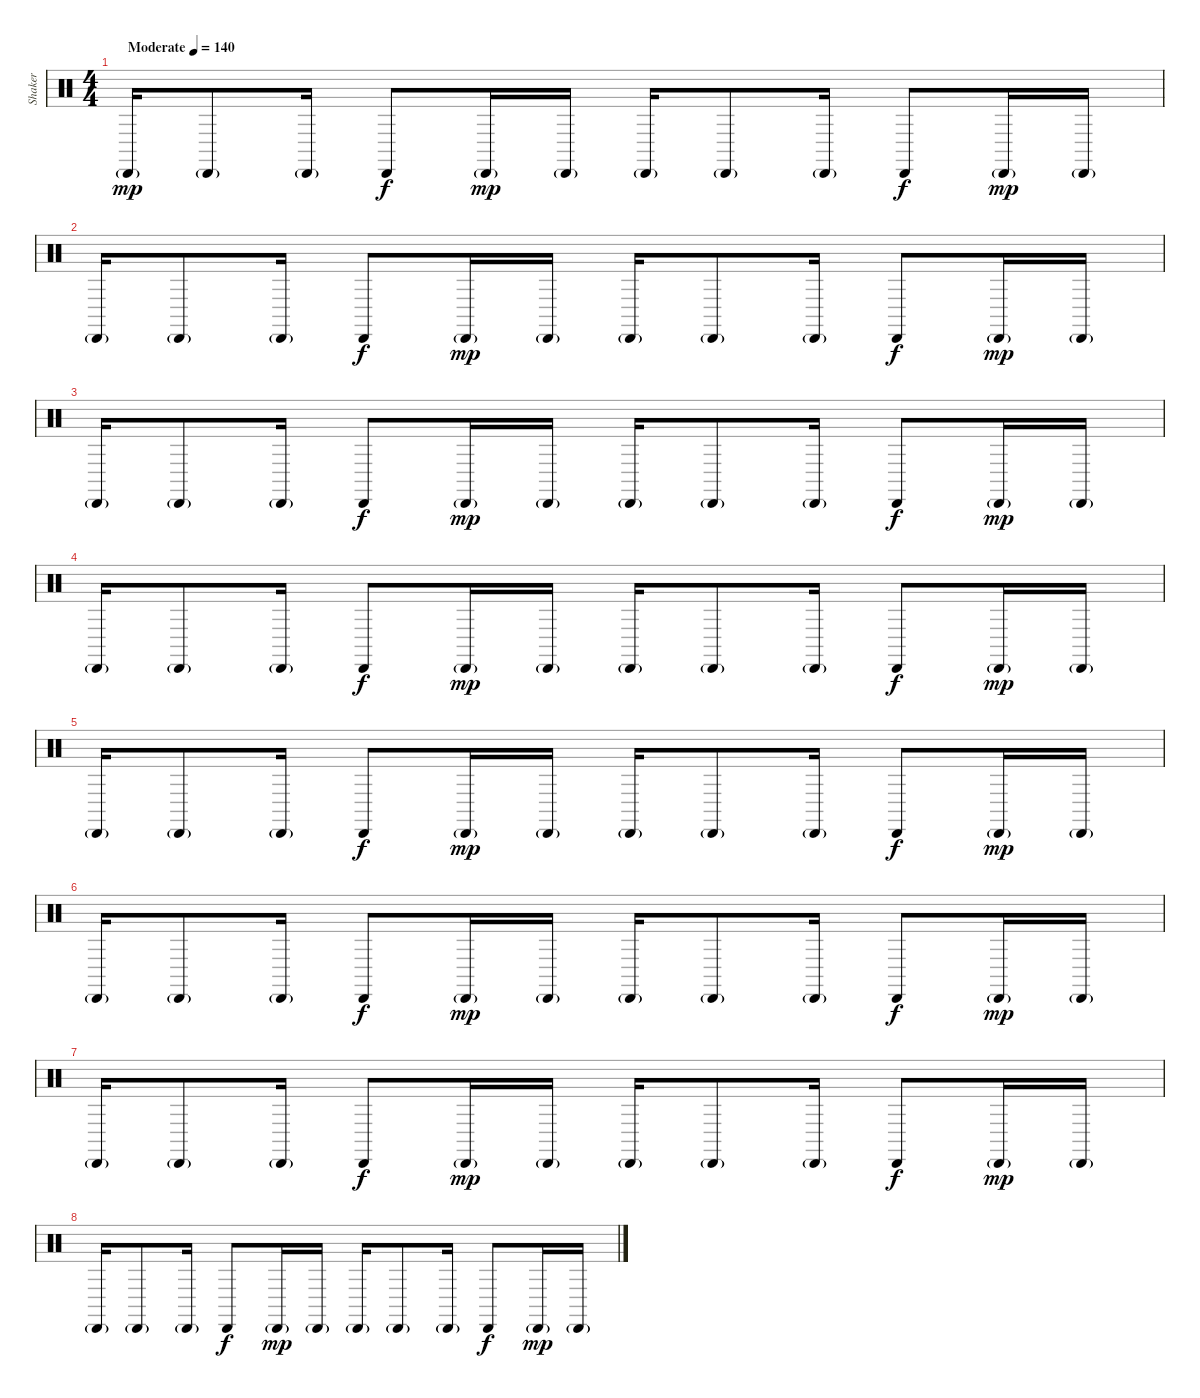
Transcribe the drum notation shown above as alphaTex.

\track ("Shaker" "Shaker") {instrument percussion}
\staff {score}
\articulation defaults
\ts (4 4)
\tempo (140 "Moderate")
\clef neutral
\ks c "Cabasa (hit)"{g}.16{dy mp} "Cabasa (hit)"{g}.8 "Cabasa (hit)"{g}.16 "Cabasa (hit)".8{dy f} "Cabasa (hit)"{g}.16{dy mp} "Cabasa (hit)"{g}.16 "Cabasa (hit)"{g}.16 "Cabasa (hit)"{g}.8 "Cabasa (hit)"{g}.16 "Cabasa (hit)".8{dy f} "Cabasa (hit)"{g}.16{dy mp} "Cabasa (hit)"{g}.16
|
"Cabasa (hit)"{g}.16 "Cabasa (hit)"{g}.8 "Cabasa (hit)"{g}.16 "Cabasa (hit)".8{dy f} "Cabasa (hit)"{g}.16{dy mp} "Cabasa (hit)"{g}.16 "Cabasa (hit)"{g}.16 "Cabasa (hit)"{g}.8 "Cabasa (hit)"{g}.16 "Cabasa (hit)".8{dy f} "Cabasa (hit)"{g}.16{dy mp} "Cabasa (hit)"{g}.16 |
"Cabasa (hit)"{g}.16 "Cabasa (hit)"{g}.8 "Cabasa (hit)"{g}.16 "Cabasa (hit)".8{dy f} "Cabasa (hit)"{g}.16{dy mp} "Cabasa (hit)"{g}.16 "Cabasa (hit)"{g}.16 "Cabasa (hit)"{g}.8 "Cabasa (hit)"{g}.16 "Cabasa (hit)".8{dy f} "Cabasa (hit)"{g}.16{dy mp} "Cabasa (hit)"{g}.16 |
"Cabasa (hit)"{g}.16 "Cabasa (hit)"{g}.8 "Cabasa (hit)"{g}.16 "Cabasa (hit)".8{dy f} "Cabasa (hit)"{g}.16{dy mp} "Cabasa (hit)"{g}.16 "Cabasa (hit)"{g}.16 "Cabasa (hit)"{g}.8 "Cabasa (hit)"{g}.16 "Cabasa (hit)".8{dy f} "Cabasa (hit)"{g}.16{dy mp} "Cabasa (hit)"{g}.16 |
"Cabasa (hit)"{g}.16 "Cabasa (hit)"{g}.8 "Cabasa (hit)"{g}.16 "Cabasa (hit)".8{dy f} "Cabasa (hit)"{g}.16{dy mp} "Cabasa (hit)"{g}.16 "Cabasa (hit)"{g}.16 "Cabasa (hit)"{g}.8 "Cabasa (hit)"{g}.16 "Cabasa (hit)".8{dy f} "Cabasa (hit)"{g}.16{dy mp} "Cabasa (hit)"{g}.16 |
"Cabasa (hit)"{g}.16 "Cabasa (hit)"{g}.8 "Cabasa (hit)"{g}.16 "Cabasa (hit)".8{dy f} "Cabasa (hit)"{g}.16{dy mp} "Cabasa (hit)"{g}.16 "Cabasa (hit)"{g}.16 "Cabasa (hit)"{g}.8 "Cabasa (hit)"{g}.16 "Cabasa (hit)".8{dy f} "Cabasa (hit)"{g}.16{dy mp} "Cabasa (hit)"{g}.16 |
"Cabasa (hit)"{g}.16 "Cabasa (hit)"{g}.8 "Cabasa (hit)"{g}.16 "Cabasa (hit)".8{dy f} "Cabasa (hit)"{g}.16{dy mp} "Cabasa (hit)"{g}.16 "Cabasa (hit)"{g}.16 "Cabasa (hit)"{g}.8 "Cabasa (hit)"{g}.16 "Cabasa (hit)".8{dy f} "Cabasa (hit)"{g}.16{dy mp} "Cabasa (hit)"{g}.16 |
"Cabasa (hit)"{g}.16 "Cabasa (hit)"{g}.8 "Cabasa (hit)"{g}.16 "Cabasa (hit)".8{dy f} "Cabasa (hit)"{g}.16{dy mp} "Cabasa (hit)"{g}.16 "Cabasa (hit)"{g}.16 "Cabasa (hit)"{g}.8 "Cabasa (hit)"{g}.16 "Cabasa (hit)".8{dy f} "Cabasa (hit)"{g}.16{dy mp} "Cabasa (hit)"{g}.16
